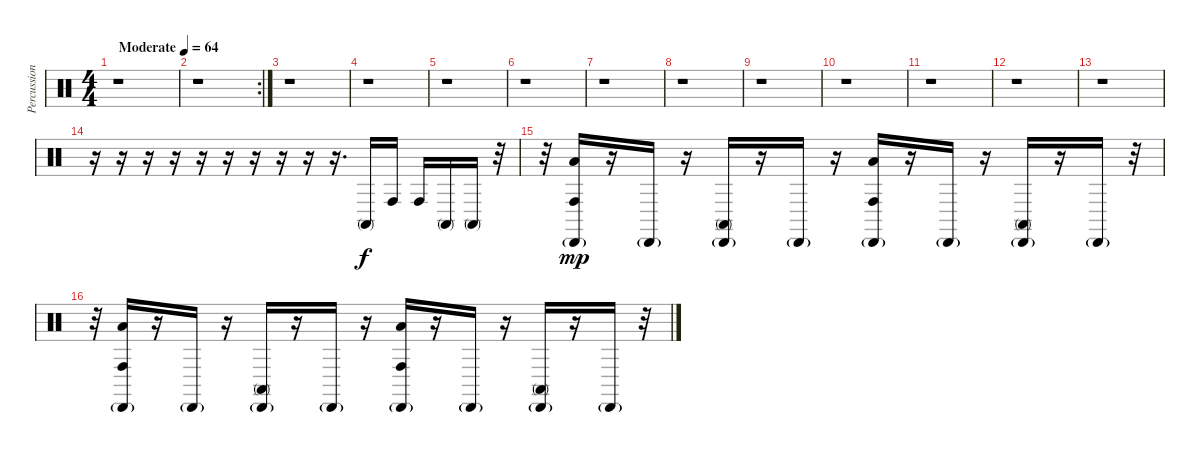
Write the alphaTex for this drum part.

\track ("Percussion" "Percussion") {instrument percussion}
\staff {score}
\articulation defaults
\ts (4 4)
\tempo (64 "Moderate")
\clef neutral
\ks c
r.1{dy f} |
\rc 2
r.1 |
r.1 |
r.1 |
r.1 |
r.1 |
r.1 |
r.1 |
r.1 |
r.1 |
r.1 |
r.1 |
r.1 |
r.16 r.16 r.16 r.16 r.16 r.16 r.16 r.16 r.16 r.16{d} "Conga high (mute)".16 "Conga high (hit)".16 "Conga high (hit)".16 "Conga high (mute)".16 "Conga high (mute)".16 r.32 |
r.32 ("Cabasa (hit)"{g} "Low Floor Tom (hit)" "Conga high (hit)").16{dy mp} r.16 "Cabasa (hit)"{g}.16 r.16 ("Cabasa (hit)"{g} "Conga high (mute)").16 r.16 "Cabasa (hit)"{g}.16 r.16 ("Cabasa (hit)"{g} "Low Floor Tom (hit)" "Conga high (hit)").16 r.16 "Cabasa (hit)"{g}.16 r.16 ("Cabasa (hit)"{g} "Conga high (mute)").16 r.16 "Cabasa (hit)"{g}.16 r.32 |
r.32 ("Cabasa (hit)"{g} "Low Floor Tom (hit)" "Conga high (hit)").16 r.16 "Cabasa (hit)"{g}.16 r.16 ("Cabasa (hit)"{g} "Conga high (mute)").16 r.16 "Cabasa (hit)"{g}.16 r.16 ("Cabasa (hit)"{g} "Low Floor Tom (hit)" "Conga high (hit)").16 r.16 "Cabasa (hit)"{g}.16 r.16 ("Cabasa (hit)"{g} "Conga high (mute)").16 r.16 "Cabasa (hit)"{g}.16 r.32
